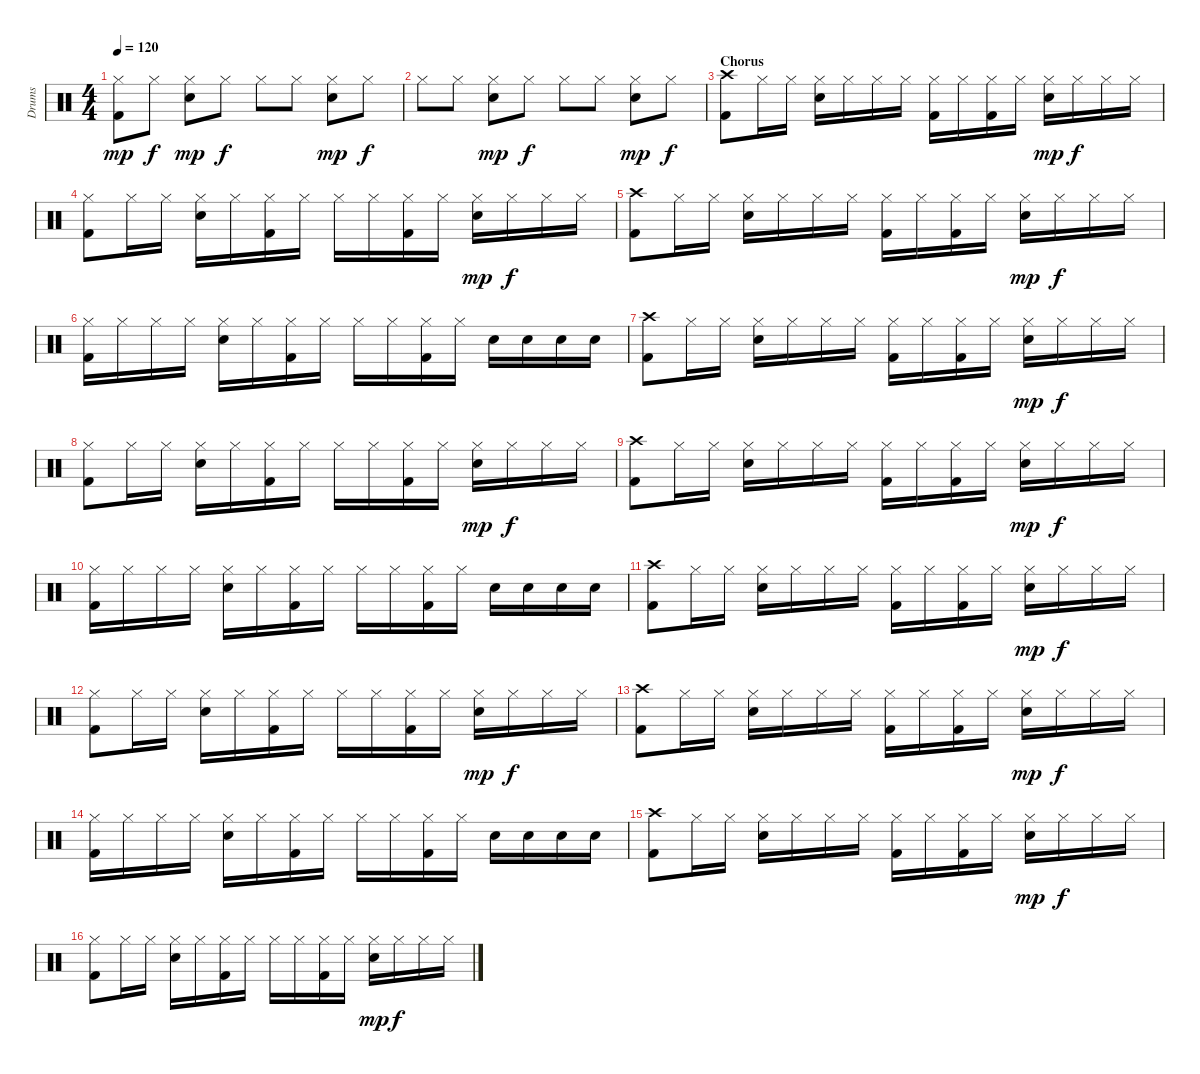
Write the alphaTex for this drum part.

\track ("Drums" "Drums") {instrument percussion}
\staff {score}
\articulation defaults
\ts (4 4)
\tempo 120
\clef neutral
\ks c
("Hi-Hat (closed)" "Kick (hit) 2").8{dy mp} "Hi-Hat (closed)".8{dy f} ("Hi-Hat (closed)" "Electric Snare (hit)").8{dy mp} "Hi-Hat (closed)".8{dy f} "Hi-Hat (closed)".8 "Hi-Hat (closed)".8 ("Hi-Hat (closed)" "Electric Snare (hit)").8{dy mp} "Hi-Hat (closed)".8{dy f} |
"Hi-Hat (closed)".8 "Hi-Hat (closed)".8 ("Hi-Hat (closed)" "Electric Snare (hit)").8{dy mp} "Hi-Hat (closed)".8{dy f} "Hi-Hat (closed)".8 "Hi-Hat (closed)".8 ("Hi-Hat (closed)" "Electric Snare (hit)").8{dy mp} "Hi-Hat (closed)".8{dy f} |
\section ("" "Chorus")
("Crash high (hit)" "Kick (hit) 2").8 "Hi-Hat (closed)".16 "Hi-Hat (closed)".16 ("Hi-Hat (closed)" "Electric Snare (hit)").16 "Hi-Hat (closed)".16 "Hi-Hat (closed)".16 "Hi-Hat (closed)".16 ("Hi-Hat (closed)" "Kick (hit) 2").16 "Hi-Hat (closed)".16 ("Hi-Hat (closed)" "Kick (hit) 2").16 "Hi-Hat (closed)".16 ("Hi-Hat (closed)" "Electric Snare (hit)").16{dy mp} "Hi-Hat (closed)".16{dy f} "Hi-Hat (closed)".16 "Hi-Hat (closed)".16 |
("Hi-Hat (closed)" "Kick (hit) 2").8 "Hi-Hat (closed)".16 "Hi-Hat (closed)".16 ("Hi-Hat (closed)" "Electric Snare (hit)").16 "Hi-Hat (closed)".16 ("Hi-Hat (closed)" "Kick (hit) 2").16 "Hi-Hat (closed)".16 "Hi-Hat (closed)".16 "Hi-Hat (closed)".16 ("Hi-Hat (closed)" "Kick (hit) 2").16 "Hi-Hat (closed)".16 ("Hi-Hat (closed)" "Electric Snare (hit)").16{dy mp} "Hi-Hat (closed)".16{dy f} "Hi-Hat (closed)".16 "Hi-Hat (closed)".16 |
("Crash high (hit)" "Kick (hit) 2").8 "Hi-Hat (closed)".16 "Hi-Hat (closed)".16 ("Hi-Hat (closed)" "Electric Snare (hit)").16 "Hi-Hat (closed)".16 "Hi-Hat (closed)".16 "Hi-Hat (closed)".16 ("Hi-Hat (closed)" "Kick (hit) 2").16 "Hi-Hat (closed)".16 ("Hi-Hat (closed)" "Kick (hit) 2").16 "Hi-Hat (closed)".16 ("Hi-Hat (closed)" "Electric Snare (hit)").16{dy mp} "Hi-Hat (closed)".16{dy f} "Hi-Hat (closed)".16 "Hi-Hat (closed)".16 |
("Hi-Hat (closed)" "Kick (hit) 2").16 "Hi-Hat (closed)".16 "Hi-Hat (closed)".16 "Hi-Hat (closed)".16 ("Hi-Hat (closed)" "Electric Snare (hit)").16 "Hi-Hat (closed)".16 ("Hi-Hat (closed)" "Kick (hit) 2").16 "Hi-Hat (closed)".16 "Hi-Hat (closed)".16 "Hi-Hat (closed)".16 ("Hi-Hat (closed)" "Kick (hit) 2").16 "Hi-Hat (closed)".16 "Electric Snare (hit)".16 "Electric Snare (hit)".16 "Electric Snare (hit)".16 "Electric Snare (hit)".16 |
("Crash high (hit)" "Kick (hit) 2").8 "Hi-Hat (closed)".16 "Hi-Hat (closed)".16 ("Hi-Hat (closed)" "Electric Snare (hit)").16 "Hi-Hat (closed)".16 "Hi-Hat (closed)".16 "Hi-Hat (closed)".16 ("Hi-Hat (closed)" "Kick (hit) 2").16 "Hi-Hat (closed)".16 ("Hi-Hat (closed)" "Kick (hit) 2").16 "Hi-Hat (closed)".16 ("Hi-Hat (closed)" "Electric Snare (hit)").16{dy mp} "Hi-Hat (closed)".16{dy f} "Hi-Hat (closed)".16 "Hi-Hat (closed)".16 |
("Hi-Hat (closed)" "Kick (hit) 2").8 "Hi-Hat (closed)".16 "Hi-Hat (closed)".16 ("Hi-Hat (closed)" "Electric Snare (hit)").16 "Hi-Hat (closed)".16 ("Hi-Hat (closed)" "Kick (hit) 2").16 "Hi-Hat (closed)".16 "Hi-Hat (closed)".16 "Hi-Hat (closed)".16 ("Hi-Hat (closed)" "Kick (hit) 2").16 "Hi-Hat (closed)".16 ("Hi-Hat (closed)" "Electric Snare (hit)").16{dy mp} "Hi-Hat (closed)".16{dy f} "Hi-Hat (closed)".16 "Hi-Hat (closed)".16 |
("Crash high (hit)" "Kick (hit) 2").8 "Hi-Hat (closed)".16 "Hi-Hat (closed)".16 ("Hi-Hat (closed)" "Electric Snare (hit)").16 "Hi-Hat (closed)".16 "Hi-Hat (closed)".16 "Hi-Hat (closed)".16 ("Hi-Hat (closed)" "Kick (hit) 2").16 "Hi-Hat (closed)".16 ("Hi-Hat (closed)" "Kick (hit) 2").16 "Hi-Hat (closed)".16 ("Hi-Hat (closed)" "Electric Snare (hit)").16{dy mp} "Hi-Hat (closed)".16{dy f} "Hi-Hat (closed)".16 "Hi-Hat (closed)".16 |
("Hi-Hat (closed)" "Kick (hit) 2").16 "Hi-Hat (closed)".16 "Hi-Hat (closed)".16 "Hi-Hat (closed)".16 ("Hi-Hat (closed)" "Electric Snare (hit)").16 "Hi-Hat (closed)".16 ("Hi-Hat (closed)" "Kick (hit) 2").16 "Hi-Hat (closed)".16 "Hi-Hat (closed)".16 "Hi-Hat (closed)".16 ("Hi-Hat (closed)" "Kick (hit) 2").16 "Hi-Hat (closed)".16 "Electric Snare (hit)".16 "Electric Snare (hit)".16 "Electric Snare (hit)".16 "Electric Snare (hit)".16 |
("Crash high (hit)" "Kick (hit) 2").8 "Hi-Hat (closed)".16 "Hi-Hat (closed)".16 ("Hi-Hat (closed)" "Electric Snare (hit)").16 "Hi-Hat (closed)".16 "Hi-Hat (closed)".16 "Hi-Hat (closed)".16 ("Hi-Hat (closed)" "Kick (hit) 2").16 "Hi-Hat (closed)".16 ("Hi-Hat (closed)" "Kick (hit) 2").16 "Hi-Hat (closed)".16 ("Hi-Hat (closed)" "Electric Snare (hit)").16{dy mp} "Hi-Hat (closed)".16{dy f} "Hi-Hat (closed)".16 "Hi-Hat (closed)".16 |
("Hi-Hat (closed)" "Kick (hit) 2").8 "Hi-Hat (closed)".16 "Hi-Hat (closed)".16 ("Hi-Hat (closed)" "Electric Snare (hit)").16 "Hi-Hat (closed)".16 ("Hi-Hat (closed)" "Kick (hit) 2").16 "Hi-Hat (closed)".16 "Hi-Hat (closed)".16 "Hi-Hat (closed)".16 ("Hi-Hat (closed)" "Kick (hit) 2").16 "Hi-Hat (closed)".16 ("Hi-Hat (closed)" "Electric Snare (hit)").16{dy mp} "Hi-Hat (closed)".16{dy f} "Hi-Hat (closed)".16 "Hi-Hat (closed)".16 |
("Crash high (hit)" "Kick (hit) 2").8 "Hi-Hat (closed)".16 "Hi-Hat (closed)".16 ("Hi-Hat (closed)" "Electric Snare (hit)").16 "Hi-Hat (closed)".16 "Hi-Hat (closed)".16 "Hi-Hat (closed)".16 ("Hi-Hat (closed)" "Kick (hit) 2").16 "Hi-Hat (closed)".16 ("Hi-Hat (closed)" "Kick (hit) 2").16 "Hi-Hat (closed)".16 ("Hi-Hat (closed)" "Electric Snare (hit)").16{dy mp} "Hi-Hat (closed)".16{dy f} "Hi-Hat (closed)".16 "Hi-Hat (closed)".16 |
("Hi-Hat (closed)" "Kick (hit) 2").16 "Hi-Hat (closed)".16 "Hi-Hat (closed)".16 "Hi-Hat (closed)".16 ("Hi-Hat (closed)" "Electric Snare (hit)").16 "Hi-Hat (closed)".16 ("Hi-Hat (closed)" "Kick (hit) 2").16 "Hi-Hat (closed)".16 "Hi-Hat (closed)".16 "Hi-Hat (closed)".16 ("Hi-Hat (closed)" "Kick (hit) 2").16 "Hi-Hat (closed)".16 "Electric Snare (hit)".16 "Electric Snare (hit)".16 "Electric Snare (hit)".16 "Electric Snare (hit)".16 |
("Crash high (hit)" "Kick (hit) 2").8 "Hi-Hat (closed)".16 "Hi-Hat (closed)".16 ("Hi-Hat (closed)" "Electric Snare (hit)").16 "Hi-Hat (closed)".16 "Hi-Hat (closed)".16 "Hi-Hat (closed)".16 ("Hi-Hat (closed)" "Kick (hit) 2").16 "Hi-Hat (closed)".16 ("Hi-Hat (closed)" "Kick (hit) 2").16 "Hi-Hat (closed)".16 ("Hi-Hat (closed)" "Electric Snare (hit)").16{dy mp} "Hi-Hat (closed)".16{dy f} "Hi-Hat (closed)".16 "Hi-Hat (closed)".16 |
("Hi-Hat (closed)" "Kick (hit) 2").8 "Hi-Hat (closed)".16 "Hi-Hat (closed)".16 ("Hi-Hat (closed)" "Electric Snare (hit)").16 "Hi-Hat (closed)".16 ("Hi-Hat (closed)" "Kick (hit) 2").16 "Hi-Hat (closed)".16 "Hi-Hat (closed)".16 "Hi-Hat (closed)".16 ("Hi-Hat (closed)" "Kick (hit) 2").16 "Hi-Hat (closed)".16 ("Hi-Hat (closed)" "Electric Snare (hit)").16{dy mp} "Hi-Hat (closed)".16{dy f} "Hi-Hat (closed)".16 "Hi-Hat (closed)".16
